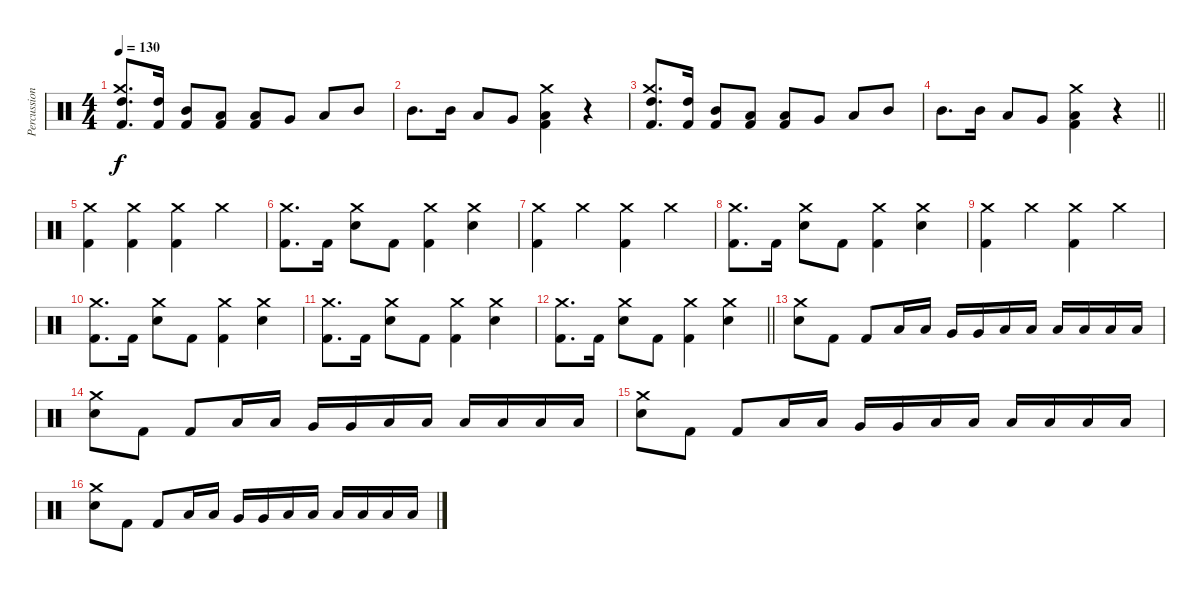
\track ("Percussion" "Percussion") {instrument percussion}
\staff {score}
\articulation defaults
\ts (4 4)
\tempo 130
\clef neutral
\ks c
("High Tom (hit)" "Crash medium (hit)" "Kick (hit) 2").8{d dy f} ("High Tom (hit)" "Kick (hit) 2").16 ("Mid Tom (hit)" "Kick (hit) 2").8 ("Low Tom (hit)" "Kick (hit) 2").8 ("Low Floor Tom (hit)" "Kick (hit) 2").8 "Very Low Tom (hit)".8 "Low Tom (hit)".8 "Mid Tom (hit)".8 |
"Mid Tom (hit)".8{d} "Mid Tom (hit)".16 "Low Tom (hit)".8 "Very Low Tom (hit)".8 ("Low Floor Tom (hit)" "Crash medium (hit)" "Kick (hit) 2").4 r.4 |
("High Tom (hit)" "Crash medium (hit)" "Kick (hit) 2").8{d} ("High Tom (hit)" "Kick (hit) 2").16 ("Mid Tom (hit)" "Kick (hit) 2").8 ("Low Tom (hit)" "Kick (hit) 2").8 ("Low Floor Tom (hit)" "Kick (hit) 2").8 "Very Low Tom (hit)".8 "Low Tom (hit)".8 "Mid Tom (hit)".8 |
\barLineRight lightlight "Mid Tom (hit)".8{d} "Mid Tom (hit)".16 "Low Tom (hit)".8 "Very Low Tom (hit)".8
("Low Floor Tom (hit)" "Crash medium (hit)" "Kick (hit) 2").4 r.4 |
\section ("" "")
("Kick (hit) 2" "Crash medium (hit)").4 ("Kick (hit) 2" "Crash medium (hit)").4 ("Kick (hit) 2" "Crash medium (hit)").4 "Crash medium (hit)".4 |
("Kick (hit) 2" "Crash medium (hit)").8{d} "Kick (hit) 2".16 ("Electric Snare (hit)" "Crash medium (hit)").8 "Kick (hit) 2".8 ("Kick (hit) 2" "Crash medium (hit)").4 ("Electric Snare (hit)" "Crash medium (hit)").4 |
("Kick (hit) 2" "Crash medium (hit)").4 "Crash medium (hit)".4 ("Kick (hit) 2" "Crash medium (hit)").4 "Crash medium (hit)".4 |
("Kick (hit) 2" "Crash medium (hit)").8{d} "Kick (hit) 2".16 ("Electric Snare (hit)" "Crash medium (hit)").8 "Kick (hit) 2".8 ("Kick (hit) 2" "Crash medium (hit)").4 ("Electric Snare (hit)" "Crash medium (hit)").4 |
("Kick (hit) 2" "Crash medium (hit)").4 "Crash medium (hit)".4 ("Kick (hit) 2" "Crash medium (hit)").4 "Crash medium (hit)".4 |
("Kick (hit) 2" "Crash medium (hit)").8{d} "Kick (hit) 2".16 ("Electric Snare (hit)" "Crash medium (hit)").8 "Kick (hit) 2".8 ("Kick (hit) 2" "Crash medium (hit)").4 ("Electric Snare (hit)" "Crash medium (hit)").4 |
("Kick (hit) 2" "Crash medium (hit)").8{d} "Kick (hit) 2".16 ("Electric Snare (hit)" "Crash medium (hit)").8 "Kick (hit) 2".8 ("Kick (hit) 2" "Crash medium (hit)").4 ("Electric Snare (hit)" "Crash medium (hit)").4 |
\barLineRight lightlight
("Kick (hit) 2" "Crash medium (hit)").8{d} "Kick (hit) 2".16 ("Electric Snare (hit)" "Crash medium (hit)").8 "Kick (hit) 2".8 ("Kick (hit) 2" "Crash medium (hit)").4 ("Electric Snare (hit)" "Crash medium (hit)").4 |
\section ("" "")
("Electric Snare (hit)" "Crash medium (hit)").8 "Kick (hit) 2".8 "Kick (hit) 2".8 "Low Tom (hit)".16 "Low Tom (hit)".16 "Very Low Tom (hit)".16 "Very Low Tom (hit)".16 "Low Floor Tom (hit)".16 "Low Floor Tom (hit)".16 "Low Floor Tom (hit)".16 "Low Floor Tom (hit)".16 "Low Floor Tom (hit)".16 "Low Floor Tom (hit)".16 |
("Electric Snare (hit)" "Crash medium (hit)").8 "Kick (hit) 2".8 "Kick (hit) 2".8 "Low Tom (hit)".16 "Low Tom (hit)".16 "Very Low Tom (hit)".16 "Very Low Tom (hit)".16 "Low Floor Tom (hit)".16 "Low Floor Tom (hit)".16 "Low Floor Tom (hit)".16 "Low Floor Tom (hit)".16 "Low Floor Tom (hit)".16 "Low Floor Tom (hit)".16 |
("Electric Snare (hit)" "Crash medium (hit)").8 "Kick (hit) 2".8 "Kick (hit) 2".8 "Low Tom (hit)".16 "Low Tom (hit)".16 "Very Low Tom (hit)".16 "Very Low Tom (hit)".16 "Low Floor Tom (hit)".16 "Low Floor Tom (hit)".16 "Low Floor Tom (hit)".16 "Low Floor Tom (hit)".16 "Low Floor Tom (hit)".16 "Low Floor Tom (hit)".16 |
("Electric Snare (hit)" "Crash medium (hit)").8 "Kick (hit) 2".8 "Kick (hit) 2".8 "Low Tom (hit)".16 "Low Tom (hit)".16 "Very Low Tom (hit)".16 "Very Low Tom (hit)".16 "Low Floor Tom (hit)".16 "Low Floor Tom (hit)".16 "Low Floor Tom (hit)".16 "Low Floor Tom (hit)".16 "Low Floor Tom (hit)".16 "Low Floor Tom (hit)".16
